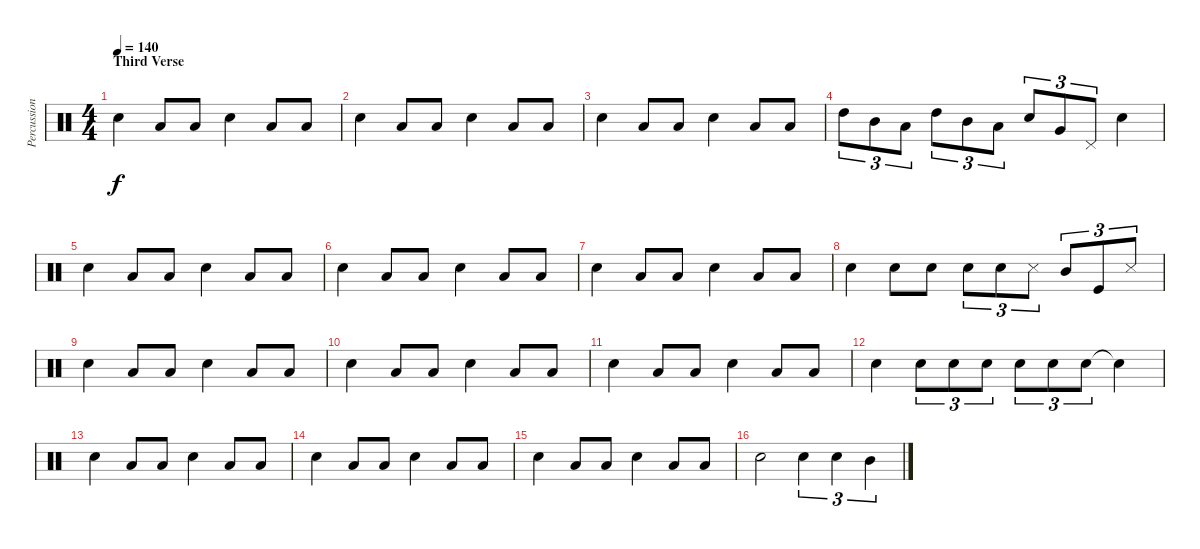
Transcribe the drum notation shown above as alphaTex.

\track ("Percussion" "Percussion") {instrument percussion}
\staff {score}
\articulation defaults
\ts (4 4)
\section ("" "Third Verse")
\tempo 140
\clef neutral
\ks c "Electric Snare (hit)".4{dy f} "Low Floor Tom (hit)".8 "Low Floor Tom (hit)".8 "Electric Snare (hit)".4 "Low Floor Tom (hit)".8 "Low Floor Tom (hit)".8
|
"Electric Snare (hit)".4 "Low Floor Tom (hit)".8 "Low Floor Tom (hit)".8 "Electric Snare (hit)".4 "Low Floor Tom (hit)".8 "Low Floor Tom (hit)".8 |
"Electric Snare (hit)".4 "Low Floor Tom (hit)".8 "Low Floor Tom (hit)".8 "Electric Snare (hit)".4 "Low Floor Tom (hit)".8 "Low Floor Tom (hit)".8 |
"High Tom (hit)".8{tu (3 2)} "Mid Tom (hit)".8{tu (3 2)} "Low Tom (hit)".8{tu (3 2)} "High Tom (hit)".8{tu (3 2)} "Mid Tom (hit)".8{tu (3 2)} "Low Tom (hit)".8{tu (3 2)} "Snare (hit) 2".8{tu (3 2)} "Very Low Tom (hit)".8{tu (3 2)} "Pedal Hi-Hat (hit)".8{tu (3 2)} "Electric Snare (hit)".4 |
"Electric Snare (hit)".4 "Low Floor Tom (hit)".8 "Low Floor Tom (hit)".8 "Electric Snare (hit)".4 "Low Floor Tom (hit)".8 "Low Floor Tom (hit)".8 |
"Electric Snare (hit)".4 "Low Floor Tom (hit)".8 "Low Floor Tom (hit)".8 "Electric Snare (hit)".4 "Low Floor Tom (hit)".8 "Low Floor Tom (hit)".8 |
"Electric Snare (hit)".4 "Low Floor Tom (hit)".8 "Low Floor Tom (hit)".8 "Electric Snare (hit)".4 "Low Floor Tom (hit)".8 "Low Floor Tom (hit)".8 |
"Snare (hit) 2".4 "Electric Snare (hit)".8 "Electric Snare (hit)".8 "Electric Snare (hit)".8{tu (3 2)} "Snare (hit) 2".8{tu (3 2)} "Snare (side stick) 3".8{tu (3 2)} "Mid Tom (hit)".8{tu (3 2)} "Kick (hit)".8{tu (3 2)} "Metronome (hit)".8{tu (3 2)} |
"Electric Snare (hit)".4 "Low Floor Tom (hit)".8 "Low Floor Tom (hit)".8 "Electric Snare (hit)".4 "Low Floor Tom (hit)".8 "Low Floor Tom (hit)".8 |
"Electric Snare (hit)".4 "Low Floor Tom (hit)".8 "Low Floor Tom (hit)".8 "Electric Snare (hit)".4 "Low Floor Tom (hit)".8 "Low Floor Tom (hit)".8 |
"Electric Snare (hit)".4 "Low Floor Tom (hit)".8 "Low Floor Tom (hit)".8 "Electric Snare (hit)".4 "Low Floor Tom (hit)".8 "Low Floor Tom (hit)".8 |
"Snare (hit) 2".4 "Electric Snare (hit)".8{tu (3 2)} "Snare (hit) 2".8{tu (3 2)} "Electric Snare (hit)".8{tu (3 2)} "Snare (hit) 2".8{tu (3 2)} "Electric Snare (hit)".8{tu (3 2)} "Snare (hit) 2".8{tu (3 2)} "Snare (hit) 2"{t}.4 |
"Electric Snare (hit)".4 "Low Floor Tom (hit)".8 "Low Floor Tom (hit)".8 "Electric Snare (hit)".4 "Low Floor Tom (hit)".8 "Low Floor Tom (hit)".8 |
"Electric Snare (hit)".4 "Low Floor Tom (hit)".8 "Low Floor Tom (hit)".8 "Electric Snare (hit)".4 "Low Floor Tom (hit)".8 "Low Floor Tom (hit)".8 |
"Electric Snare (hit)".4 "Low Floor Tom (hit)".8 "Low Floor Tom (hit)".8 "Electric Snare (hit)".4 "Low Floor Tom (hit)".8 "Low Floor Tom (hit)".8 |
"Electric Snare (hit)".2 "Snare (hit) 2".4{tu (3 2)} "Electric Snare (hit)".4{tu (3 2)} "Mid Tom (hit)".4{tu (3 2)}
